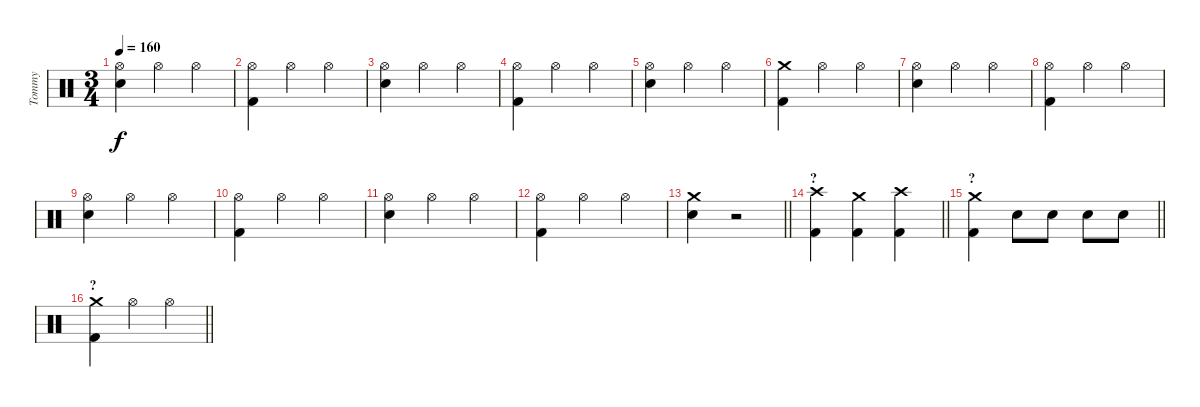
\track ("Tommy" "Tommy") {instrument percussion}
\staff {score}
\articulation defaults
\ts (3 4)
\tempo 160
\clef neutral
\ks c
("Hi-Hat (open)" "Electric Snare (hit)").4{dy f} "Hi-Hat (open)".4 "Hi-Hat (open)".4 |
("Hi-Hat (open)" "Kick (hit) 2").4 "Hi-Hat (open)".4 "Hi-Hat (open)".4 |
("Hi-Hat (open)" "Electric Snare (hit)").4 "Hi-Hat (open)".4 "Hi-Hat (open)".4 |
("Hi-Hat (open)" "Kick (hit) 2").4 "Hi-Hat (open)".4 "Hi-Hat (open)".4 |
("Hi-Hat (open)" "Electric Snare (hit)").4 "Hi-Hat (open)".4 "Hi-Hat (open)".4 |
("Crash medium (hit)" "Kick (hit) 2").4 "Hi-Hat (open)".4 "Hi-Hat (open)".4 |
("Hi-Hat (open)" "Electric Snare (hit)").4 "Hi-Hat (open)".4 "Hi-Hat (open)".4 |
("Hi-Hat (open)" "Kick (hit) 2").4 "Hi-Hat (open)".4 "Hi-Hat (open)".4 |
("Hi-Hat (open)" "Electric Snare (hit)").4 "Hi-Hat (open)".4 "Hi-Hat (open)".4 |
("Hi-Hat (open)" "Kick (hit) 2").4 "Hi-Hat (open)".4 "Hi-Hat (open)".4 |
("Hi-Hat (open)" "Electric Snare (hit)").4 "Hi-Hat (open)".4 "Hi-Hat (open)".4 |
("Hi-Hat (open)" "Kick (hit) 2").4 "Hi-Hat (open)".4 "Hi-Hat (open)".4 |
\barLineRight lightlight
("Crash medium (hit)" "Electric Snare (hit)").4 r.2 |
\section ("" "?")
\barLineRight lightlight
("Crash high (hit)" "Kick (hit) 2").4 ("Crash medium (hit)" "Kick (hit) 2").4 ("Crash high (hit)" "Kick (hit) 2").4 |
\section ("" "?")
\barLineRight lightlight
("Crash medium (hit)" "Kick (hit) 2").4 "Electric Snare (hit)".8 "Electric Snare (hit)".8 "Electric Snare (hit)".8 "Electric Snare (hit)".8 |
\section ("" "?")
\barLineRight lightlight
("Crash medium (hit)" "Kick (hit) 2").4 "Hi-Hat (open)".4 "Hi-Hat (open)".4
